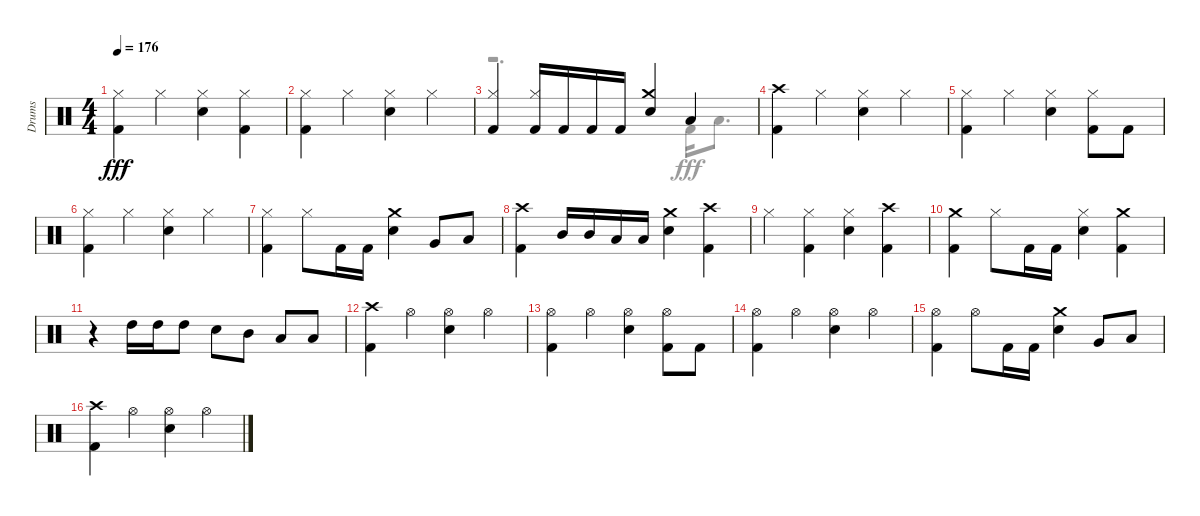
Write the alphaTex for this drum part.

\track ("Drums" "Drums") {instrument percussion}
\staff {score}
\articulation defaults
\voice
\ts (4 4)
\tempo 176
\clef neutral
\ks aminor
("Kick (hit) 2" "Hi-Hat (closed)").4{dy fff} "Hi-Hat (closed)".4 ("Snare (hit) 2" "Hi-Hat (closed)").4 ("Kick (hit) 2" "Hi-Hat (closed)").4 |
("Kick (hit) 2" "Hi-Hat (closed)").4 "Hi-Hat (closed)".4 ("Snare (hit) 2" "Hi-Hat (closed)").4 "Hi-Hat (closed)".4 |
("Kick (hit) 2" "Hi-Hat (closed)").4 ("Kick (hit) 2" "Hi-Hat (closed)").16 "Kick (hit) 2".16 "Kick (hit) 2".16 "Kick (hit) 2".16 ("Snare (hit) 2" "Crash medium (hit)").4 "Low Floor Tom (hit)".4 |
("Kick (hit) 2" "Crash high (hit)").4 "Hi-Hat (closed)".4 ("Snare (hit) 2" "Hi-Hat (closed)").4 "Hi-Hat (closed)".4 |
("Hi-Hat (closed)" "Kick (hit) 2").4 "Hi-Hat (closed)".4 ("Hi-Hat (closed)" "Snare (hit) 2").4 ("Kick (hit) 2" "Hi-Hat (closed)").8 "Kick (hit) 2".8 |
("Hi-Hat (closed)" "Kick (hit) 2").4 "Hi-Hat (closed)".4 ("Hi-Hat (closed)" "Snare (hit) 2").4 "Hi-Hat (closed)".4 |
("Hi-Hat (closed)" "Kick (hit) 2").4 "Hi-Hat (closed)".8 "Kick (hit) 2".16 "Kick (hit) 2".16 ("Snare (hit) 2" "Crash medium (hit)").4 "Very Low Tom (hit)".8 "Low Floor Tom (hit)".8 |
("Kick (hit) 2" "Crash high (hit)").4 "Mid Tom (hit)".16 "Mid Tom (hit)".16 "Low Tom (hit)".16 "Low Tom (hit)".16 ("Snare (hit) 2" "Crash medium (hit)").4 ("Kick (hit) 2" "Crash high (hit)").4 |
"Hi-Hat (closed)".4 ("Kick (hit) 2" "Hi-Hat (closed)").4 ("Hi-Hat (closed)" "Snare (hit) 2").4 ("Kick (hit) 2" "Crash high (hit)").4 |
("Crash medium (hit)" "Kick (hit) 2").4 "Hi-Hat (closed)".8 "Kick (hit) 2".16 "Kick (hit) 2".16 ("Hi-Hat (closed)" "Snare (hit) 2").4 ("Kick (hit) 2" "Crash medium (hit)").4 |
r.4 "High Tom (hit)".16 "High Tom (hit)".16 "High Tom (hit)".8 "Snare (hit) 2".8 "Mid Tom (hit)".8 "Low Tom (hit)".8 "Low Tom (hit)".8 |
("Kick (hit) 2" "Crash high (hit)").4 "Hi-Hat (open)".4 ("Hi-Hat (open)" "Snare (hit) 2").4 "Hi-Hat (open)".4 |
("Kick (hit) 2" "Hi-Hat (open)").4 "Hi-Hat (open)".4 ("Snare (hit) 2" "Hi-Hat (open)").4 ("Hi-Hat (open)" "Kick (hit) 2").8 "Kick (hit) 2".8 |
("Kick (hit) 2" "Hi-Hat (open)").4 "Hi-Hat (open)".4 ("Snare (hit) 2" "Hi-Hat (open)").4 "Hi-Hat (open)".4 |
("Hi-Hat (open)" "Kick (hit) 2").4 "Hi-Hat (open)".8 "Kick (hit) 2".16 "Kick (hit) 2".16 ("Crash medium (hit)" "Snare (hit) 2").4 "Very Low Tom (hit)".8 "Low Floor Tom (hit)".8 |
("Kick (hit) 2" "Crash high (hit)").4 "Hi-Hat (open)".4 ("Hi-Hat (open)" "Snare (hit) 2").4 "Hi-Hat (open)".4
\voice
\clef neutral
\ottava regular
\simile none
\ks aminor
|
|
r.2{d} "Kick (hit) 2".16 "Low Floor Tom (hit)".8{d} |
|
|
|
|
|
|
|
|
|
|
|
|
